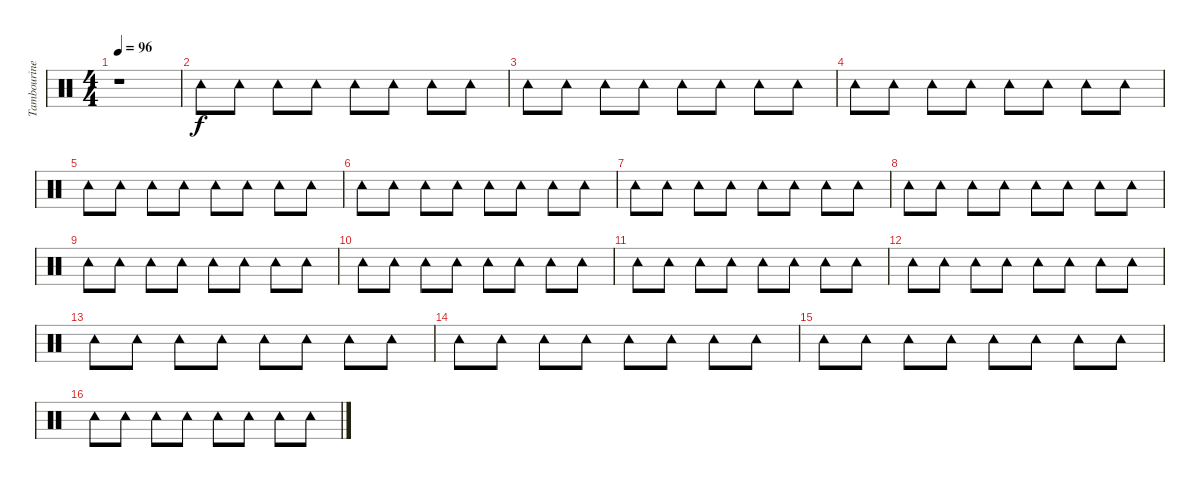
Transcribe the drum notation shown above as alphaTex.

\track ("Tambourine" "Tambourine") {instrument percussion}
\staff {score}
\articulation defaults
\ts (4 4)
\tempo 96
\clef neutral
\ks c
r.1{dy f} |
"Tambourine (hit)".8 "Tambourine (hit)".8 "Tambourine (hit)".8 "Tambourine (hit)".8 "Tambourine (hit)".8 "Tambourine (hit)".8 "Tambourine (hit)".8 "Tambourine (hit)".8 |
"Tambourine (hit)".8 "Tambourine (hit)".8 "Tambourine (hit)".8 "Tambourine (hit)".8 "Tambourine (hit)".8 "Tambourine (hit)".8 "Tambourine (hit)".8 "Tambourine (hit)".8 |
"Tambourine (hit)".8 "Tambourine (hit)".8 "Tambourine (hit)".8 "Tambourine (hit)".8 "Tambourine (hit)".8 "Tambourine (hit)".8 "Tambourine (hit)".8 "Tambourine (hit)".8 |
"Tambourine (hit)".8 "Tambourine (hit)".8 "Tambourine (hit)".8 "Tambourine (hit)".8 "Tambourine (hit)".8 "Tambourine (hit)".8 "Tambourine (hit)".8 "Tambourine (hit)".8 |
"Tambourine (hit)".8 "Tambourine (hit)".8 "Tambourine (hit)".8 "Tambourine (hit)".8 "Tambourine (hit)".8 "Tambourine (hit)".8 "Tambourine (hit)".8 "Tambourine (hit)".8 |
"Tambourine (hit)".8 "Tambourine (hit)".8 "Tambourine (hit)".8 "Tambourine (hit)".8 "Tambourine (hit)".8 "Tambourine (hit)".8 "Tambourine (hit)".8 "Tambourine (hit)".8 |
"Tambourine (hit)".8 "Tambourine (hit)".8 "Tambourine (hit)".8 "Tambourine (hit)".8 "Tambourine (hit)".8 "Tambourine (hit)".8 "Tambourine (hit)".8 "Tambourine (hit)".8 |
"Tambourine (hit)".8 "Tambourine (hit)".8 "Tambourine (hit)".8 "Tambourine (hit)".8 "Tambourine (hit)".8 "Tambourine (hit)".8 "Tambourine (hit)".8 "Tambourine (hit)".8 |
"Tambourine (hit)".8 "Tambourine (hit)".8 "Tambourine (hit)".8 "Tambourine (hit)".8 "Tambourine (hit)".8 "Tambourine (hit)".8 "Tambourine (hit)".8 "Tambourine (hit)".8 |
"Tambourine (hit)".8 "Tambourine (hit)".8 "Tambourine (hit)".8 "Tambourine (hit)".8 "Tambourine (hit)".8 "Tambourine (hit)".8 "Tambourine (hit)".8 "Tambourine (hit)".8 |
"Tambourine (hit)".8 "Tambourine (hit)".8 "Tambourine (hit)".8 "Tambourine (hit)".8 "Tambourine (hit)".8 "Tambourine (hit)".8 "Tambourine (hit)".8 "Tambourine (hit)".8 |
"Tambourine (hit)".8 "Tambourine (hit)".8 "Tambourine (hit)".8 "Tambourine (hit)".8 "Tambourine (hit)".8 "Tambourine (hit)".8 "Tambourine (hit)".8 "Tambourine (hit)".8 |
"Tambourine (hit)".8 "Tambourine (hit)".8 "Tambourine (hit)".8 "Tambourine (hit)".8 "Tambourine (hit)".8 "Tambourine (hit)".8 "Tambourine (hit)".8 "Tambourine (hit)".8 |
"Tambourine (hit)".8 "Tambourine (hit)".8 "Tambourine (hit)".8 "Tambourine (hit)".8 "Tambourine (hit)".8 "Tambourine (hit)".8 "Tambourine (hit)".8 "Tambourine (hit)".8 |
"Tambourine (hit)".8 "Tambourine (hit)".8 "Tambourine (hit)".8 "Tambourine (hit)".8 "Tambourine (hit)".8 "Tambourine (hit)".8 "Tambourine (hit)".8 "Tambourine (hit)".8
